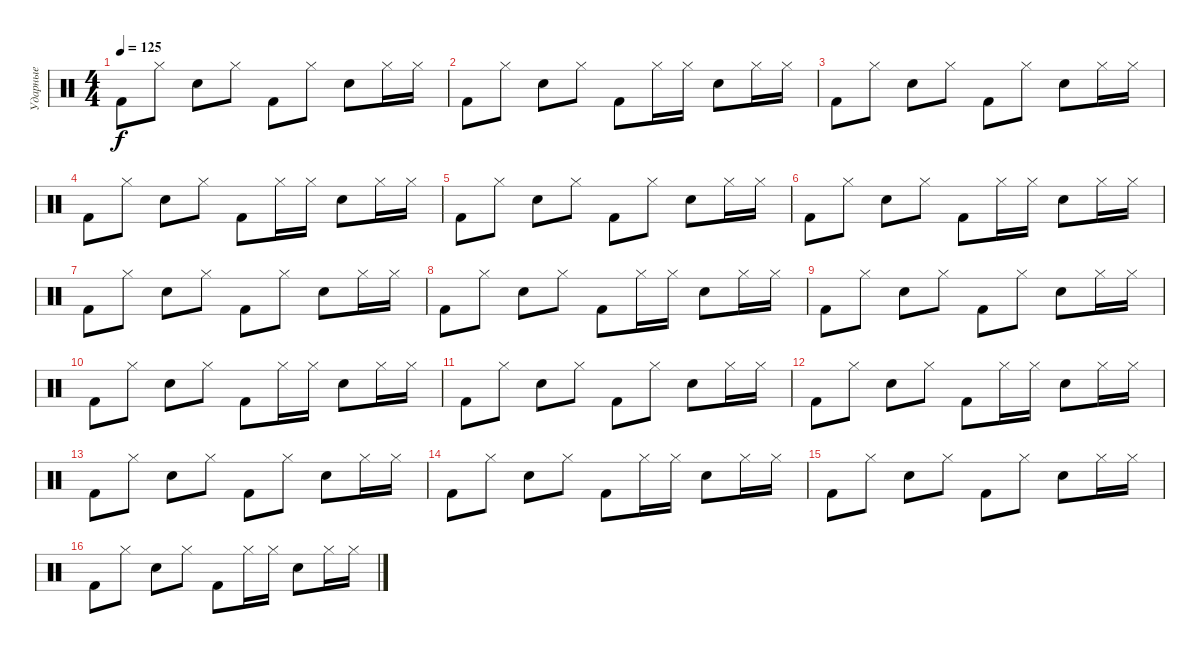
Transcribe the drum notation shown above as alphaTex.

\track ("Ударные" "Ударные") {instrument percussion}
\staff {score}
\articulation defaults
\ts (4 4)
\tempo 125
\clef neutral
\ks c "Kick (hit) 2".8{dy f} "Hi-Hat (closed)".8 "Snare (hit) 2".8 "Hi-Hat (closed)".8 "Kick (hit) 2".8 "Hi-Hat (closed)".8 "Snare (hit) 2".8 "Hi-Hat (closed)".16 "Hi-Hat (closed)".16
|
"Kick (hit) 2".8 "Hi-Hat (closed)".8 "Snare (hit) 2".8 "Hi-Hat (closed)".8 "Kick (hit) 2".8 "Hi-Hat (closed)".16 "Hi-Hat (closed)".16 "Snare (hit) 2".8 "Hi-Hat (closed)".16 "Hi-Hat (closed)".16 |
"Kick (hit) 2".8 "Hi-Hat (closed)".8 "Snare (hit) 2".8 "Hi-Hat (closed)".8 "Kick (hit) 2".8 "Hi-Hat (closed)".8 "Snare (hit) 2".8 "Hi-Hat (closed)".16 "Hi-Hat (closed)".16 |
"Kick (hit) 2".8 "Hi-Hat (closed)".8 "Snare (hit) 2".8 "Hi-Hat (closed)".8 "Kick (hit) 2".8 "Hi-Hat (closed)".16 "Hi-Hat (closed)".16 "Snare (hit) 2".8 "Hi-Hat (closed)".16 "Hi-Hat (closed)".16 |
"Kick (hit) 2".8 "Hi-Hat (closed)".8 "Snare (hit) 2".8 "Hi-Hat (closed)".8 "Kick (hit) 2".8 "Hi-Hat (closed)".8 "Snare (hit) 2".8 "Hi-Hat (closed)".16 "Hi-Hat (closed)".16 |
"Kick (hit) 2".8 "Hi-Hat (closed)".8 "Snare (hit) 2".8 "Hi-Hat (closed)".8 "Kick (hit) 2".8 "Hi-Hat (closed)".16 "Hi-Hat (closed)".16 "Snare (hit) 2".8 "Hi-Hat (closed)".16 "Hi-Hat (closed)".16 |
"Kick (hit) 2".8 "Hi-Hat (closed)".8 "Snare (hit) 2".8 "Hi-Hat (closed)".8 "Kick (hit) 2".8 "Hi-Hat (closed)".8 "Snare (hit) 2".8 "Hi-Hat (closed)".16 "Hi-Hat (closed)".16 |
"Kick (hit) 2".8 "Hi-Hat (closed)".8 "Snare (hit) 2".8 "Hi-Hat (closed)".8 "Kick (hit) 2".8 "Hi-Hat (closed)".16 "Hi-Hat (closed)".16 "Snare (hit) 2".8 "Hi-Hat (closed)".16 "Hi-Hat (closed)".16 |
"Kick (hit) 2".8 "Hi-Hat (closed)".8 "Snare (hit) 2".8 "Hi-Hat (closed)".8 "Kick (hit) 2".8 "Hi-Hat (closed)".8 "Snare (hit) 2".8 "Hi-Hat (closed)".16 "Hi-Hat (closed)".16 |
"Kick (hit) 2".8 "Hi-Hat (closed)".8 "Snare (hit) 2".8 "Hi-Hat (closed)".8 "Kick (hit) 2".8 "Hi-Hat (closed)".16 "Hi-Hat (closed)".16 "Snare (hit) 2".8 "Hi-Hat (closed)".16 "Hi-Hat (closed)".16 |
"Kick (hit) 2".8 "Hi-Hat (closed)".8 "Snare (hit) 2".8 "Hi-Hat (closed)".8 "Kick (hit) 2".8 "Hi-Hat (closed)".8 "Snare (hit) 2".8 "Hi-Hat (closed)".16 "Hi-Hat (closed)".16 |
"Kick (hit) 2".8 "Hi-Hat (closed)".8 "Snare (hit) 2".8 "Hi-Hat (closed)".8 "Kick (hit) 2".8 "Hi-Hat (closed)".16 "Hi-Hat (closed)".16 "Snare (hit) 2".8 "Hi-Hat (closed)".16 "Hi-Hat (closed)".16 |
"Kick (hit) 2".8 "Hi-Hat (closed)".8 "Snare (hit) 2".8 "Hi-Hat (closed)".8 "Kick (hit) 2".8 "Hi-Hat (closed)".8 "Snare (hit) 2".8 "Hi-Hat (closed)".16 "Hi-Hat (closed)".16 |
"Kick (hit) 2".8 "Hi-Hat (closed)".8 "Snare (hit) 2".8 "Hi-Hat (closed)".8 "Kick (hit) 2".8 "Hi-Hat (closed)".16 "Hi-Hat (closed)".16 "Snare (hit) 2".8 "Hi-Hat (closed)".16 "Hi-Hat (closed)".16 |
"Kick (hit) 2".8 "Hi-Hat (closed)".8 "Snare (hit) 2".8 "Hi-Hat (closed)".8 "Kick (hit) 2".8 "Hi-Hat (closed)".8 "Snare (hit) 2".8 "Hi-Hat (closed)".16 "Hi-Hat (closed)".16 |
"Kick (hit) 2".8 "Hi-Hat (closed)".8 "Snare (hit) 2".8 "Hi-Hat (closed)".8 "Kick (hit) 2".8 "Hi-Hat (closed)".16 "Hi-Hat (closed)".16 "Snare (hit) 2".8 "Hi-Hat (closed)".16 "Hi-Hat (closed)".16
